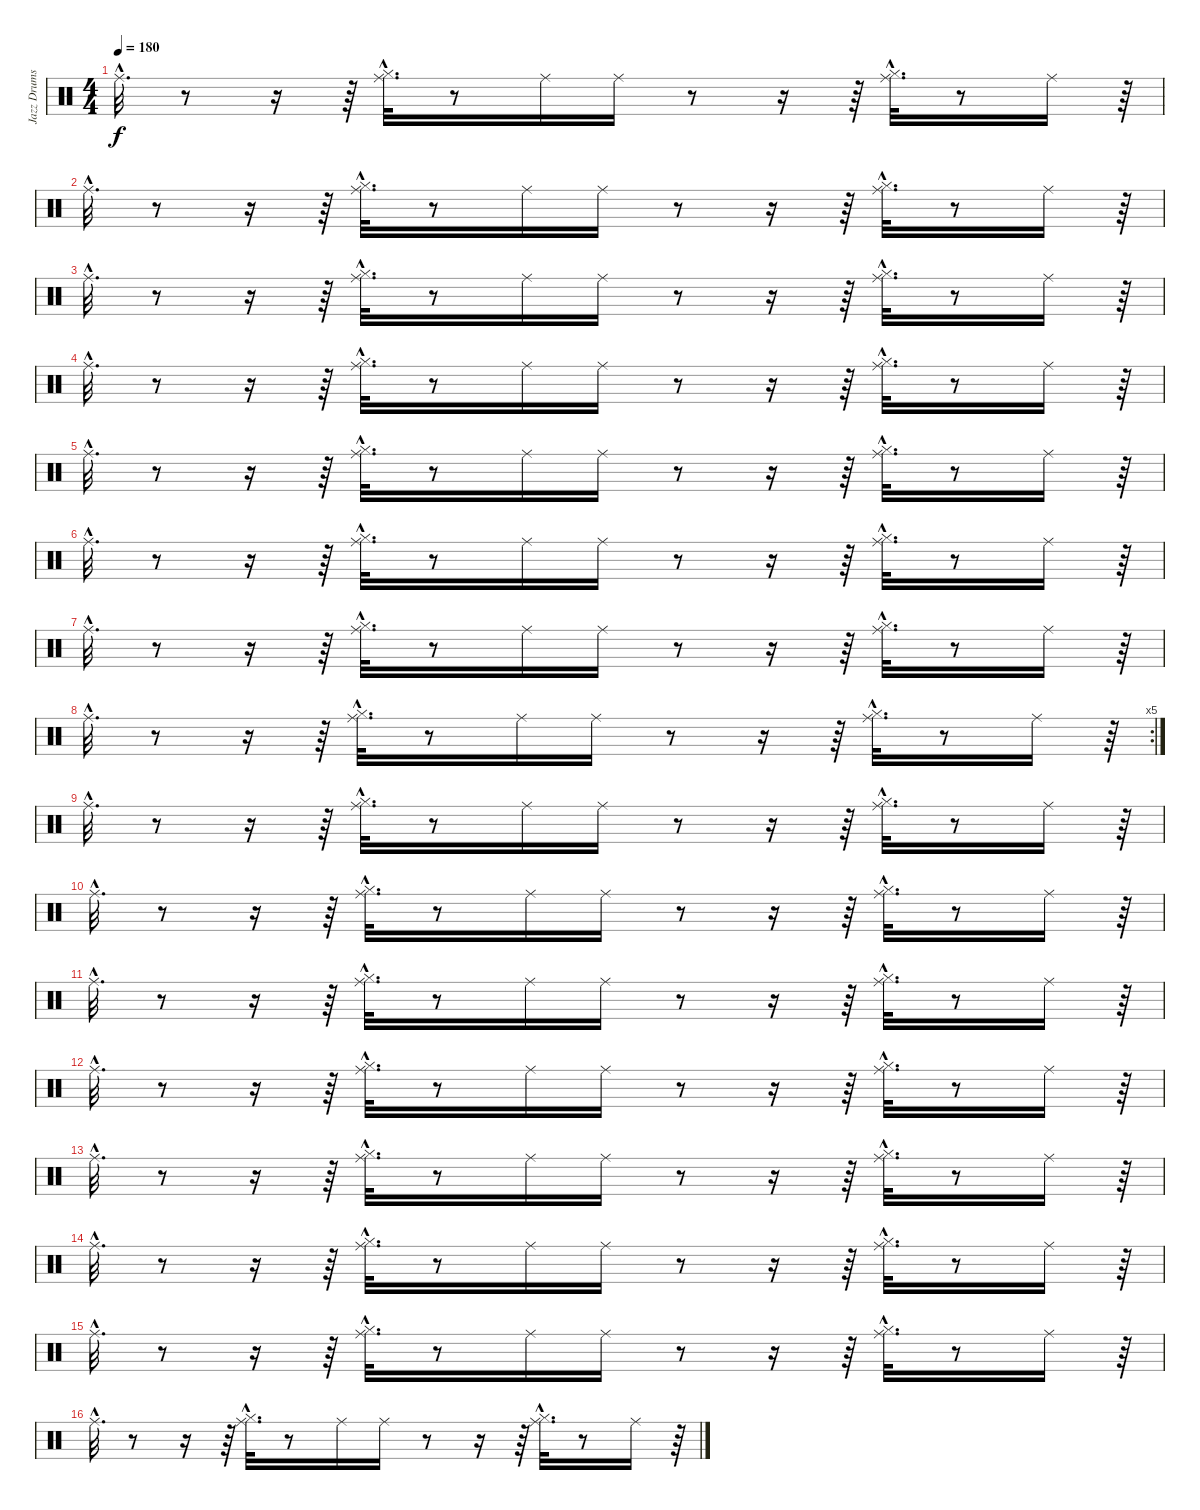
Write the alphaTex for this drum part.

\track ("Jazz Drums" "Jazz Drums") {instrument percussion}
\staff {score}
\articulation defaults
\ts (4 4)
\tempo 180
\clef neutral
\ks c "Ride (middle)"{hac}.32{d dy f}
r.8 r.16 r.64 ("Hi-Hat (closed)"{hac} "Ride (middle)"{hac}).32{d} r.8 "Ride (middle)".16 "Ride (middle)".16 r.8 r.16 r.64 ("Hi-Hat (closed)"{hac} "Ride (middle)"{hac}).32{d} r.8 "Ride (middle)".16 r.64 |
"Ride (middle)"{hac}.32{d} r.8 r.16 r.64 ("Hi-Hat (closed)"{hac} "Ride (middle)"{hac}).32{d} r.8 "Ride (middle)".16 "Ride (middle)".16 r.8 r.16 r.64 ("Hi-Hat (closed)"{hac} "Ride (middle)"{hac}).32{d} r.8 "Ride (middle)".16 r.64 |
"Ride (middle)"{hac}.32{d} r.8 r.16 r.64 ("Hi-Hat (closed)"{hac} "Ride (middle)"{hac}).32{d} r.8 "Ride (middle)".16 "Ride (middle)".16 r.8 r.16 r.64 ("Hi-Hat (closed)"{hac} "Ride (middle)"{hac}).32{d} r.8 "Ride (middle)".16 r.64 |
"Ride (middle)"{hac}.32{d} r.8 r.16 r.64 ("Hi-Hat (closed)"{hac} "Ride (middle)"{hac}).32{d} r.8 "Ride (middle)".16 "Ride (middle)".16 r.8 r.16 r.64 ("Hi-Hat (closed)"{hac} "Ride (middle)"{hac}).32{d} r.8 "Ride (middle)".16 r.64 |
"Ride (middle)"{hac}.32{d} r.8 r.16 r.64 ("Hi-Hat (closed)"{hac} "Ride (middle)"{hac}).32{d} r.8 "Ride (middle)".16 "Ride (middle)".16 r.8 r.16 r.64 ("Hi-Hat (closed)"{hac} "Ride (middle)"{hac}).32{d} r.8 "Ride (middle)".16 r.64 |
"Ride (middle)"{hac}.32{d} r.8 r.16 r.64 ("Hi-Hat (closed)"{hac} "Ride (middle)"{hac}).32{d} r.8 "Ride (middle)".16 "Ride (middle)".16 r.8 r.16 r.64 ("Hi-Hat (closed)"{hac} "Ride (middle)"{hac}).32{d} r.8 "Ride (middle)".16 r.64 |
"Ride (middle)"{hac}.32{d} r.8 r.16 r.64 ("Hi-Hat (closed)"{hac} "Ride (middle)"{hac}).32{d} r.8 "Ride (middle)".16 "Ride (middle)".16 r.8 r.16 r.64 ("Hi-Hat (closed)"{hac} "Ride (middle)"{hac}).32{d} r.8 "Ride (middle)".16 r.64 |
\rc 5 "Ride (middle)"{hac}.32{d}
r.8 r.16 r.64 ("Hi-Hat (closed)"{hac} "Ride (middle)"{hac}).32{d} r.8 "Ride (middle)".16 "Ride (middle)".16 r.8 r.16 r.64 ("Hi-Hat (closed)"{hac} "Ride (middle)"{hac}).32{d} r.8 "Ride (middle)".16 r.64 |
"Ride (middle)"{hac}.32{d} r.8 r.16 r.64 ("Hi-Hat (closed)"{hac} "Ride (middle)"{hac}).32{d} r.8 "Ride (middle)".16 "Ride (middle)".16 r.8 r.16 r.64 ("Hi-Hat (closed)"{hac} "Ride (middle)"{hac}).32{d} r.8 "Ride (middle)".16 r.64 |
"Ride (middle)"{hac}.32{d} r.8 r.16 r.64 ("Hi-Hat (closed)"{hac} "Ride (middle)"{hac}).32{d} r.8 "Ride (middle)".16 "Ride (middle)".16 r.8 r.16 r.64 ("Hi-Hat (closed)"{hac} "Ride (middle)"{hac}).32{d} r.8 "Ride (middle)".16 r.64 |
"Ride (middle)"{hac}.32{d} r.8 r.16 r.64 ("Hi-Hat (closed)"{hac} "Ride (middle)"{hac}).32{d} r.8 "Ride (middle)".16 "Ride (middle)".16 r.8 r.16 r.64 ("Hi-Hat (closed)"{hac} "Ride (middle)"{hac}).32{d} r.8 "Ride (middle)".16 r.64 |
"Ride (middle)"{hac}.32{d} r.8 r.16 r.64 ("Hi-Hat (closed)"{hac} "Ride (middle)"{hac}).32{d} r.8 "Ride (middle)".16 "Ride (middle)".16 r.8 r.16 r.64 ("Hi-Hat (closed)"{hac} "Ride (middle)"{hac}).32{d} r.8 "Ride (middle)".16 r.64 |
"Ride (middle)"{hac}.32{d} r.8 r.16 r.64 ("Hi-Hat (closed)"{hac} "Ride (middle)"{hac}).32{d} r.8 "Ride (middle)".16 "Ride (middle)".16 r.8 r.16 r.64 ("Hi-Hat (closed)"{hac} "Ride (middle)"{hac}).32{d} r.8 "Ride (middle)".16 r.64 |
"Ride (middle)"{hac}.32{d} r.8 r.16 r.64 ("Hi-Hat (closed)"{hac} "Ride (middle)"{hac}).32{d} r.8 "Ride (middle)".16 "Ride (middle)".16 r.8 r.16 r.64 ("Hi-Hat (closed)"{hac} "Ride (middle)"{hac}).32{d} r.8 "Ride (middle)".16 r.64 |
"Ride (middle)"{hac}.32{d} r.8 r.16 r.64 ("Hi-Hat (closed)"{hac} "Ride (middle)"{hac}).32{d} r.8 "Ride (middle)".16 "Ride (middle)".16 r.8 r.16 r.64 ("Hi-Hat (closed)"{hac} "Ride (middle)"{hac}).32{d} r.8 "Ride (middle)".16 r.64 |
"Ride (middle)"{hac}.32{d} r.8 r.16 r.64 ("Hi-Hat (closed)"{hac} "Ride (middle)"{hac}).32{d} r.8 "Ride (middle)".16 "Ride (middle)".16 r.8 r.16 r.64 ("Hi-Hat (closed)"{hac} "Ride (middle)"{hac}).32{d} r.8 "Ride (middle)".16 r.64
